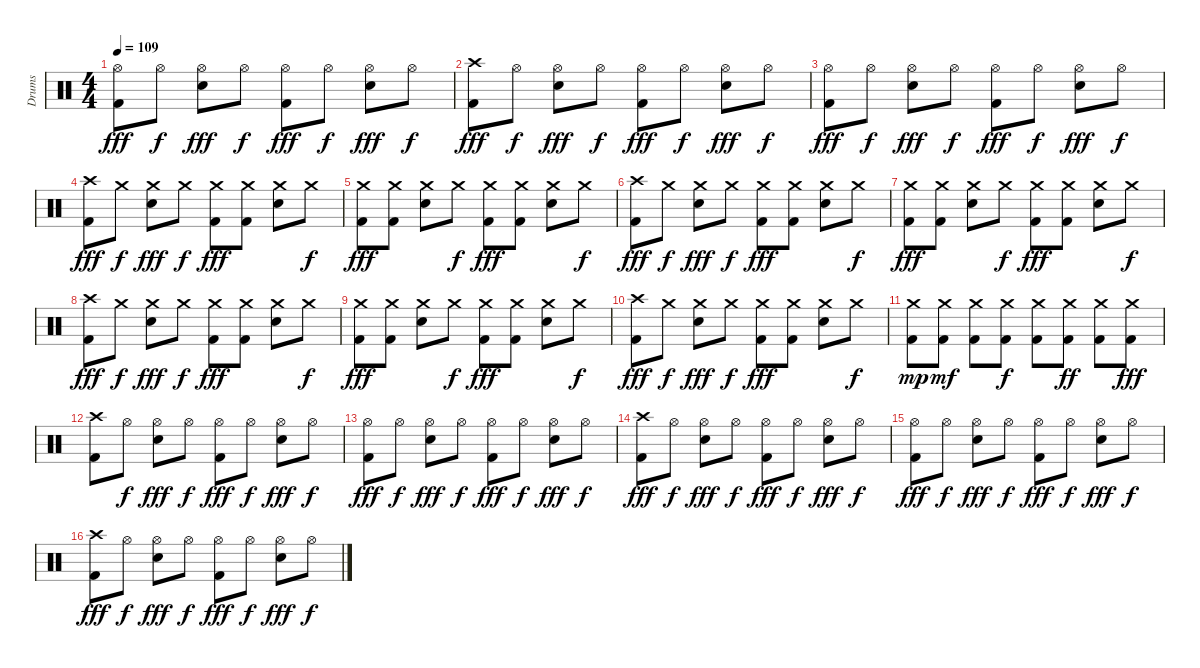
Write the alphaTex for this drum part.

\track ("Drums" "Drums") {instrument percussion}
\staff {score}
\articulation defaults
\ts (4 4)
\tempo 109
\clef neutral
\ks c
("Hi-Hat (open)" "Kick (hit) 2").8{dy fff} "Hi-Hat (open)".8{dy f} ("Hi-Hat (open)" "Electric Snare (hit)").8{dy fff} "Hi-Hat (open)".8{dy f} ("Hi-Hat (open)" "Kick (hit) 2").8{dy fff} "Hi-Hat (open)".8{dy f} ("Hi-Hat (open)" "Electric Snare (hit)").8{dy fff} "Hi-Hat (open)".8{dy f} |
("Crash high (hit)" "Kick (hit) 2").8{dy fff} "Hi-Hat (open)".8{dy f} ("Hi-Hat (open)" "Electric Snare (hit)").8{dy fff} "Hi-Hat (open)".8{dy f} ("Hi-Hat (open)" "Kick (hit) 2").8{dy fff} "Hi-Hat (open)".8{dy f} ("Hi-Hat (open)" "Electric Snare (hit)").8{dy fff} "Hi-Hat (open)".8{dy f} |
("Hi-Hat (open)" "Kick (hit) 2").8{dy fff} "Hi-Hat (open)".8{dy f} ("Hi-Hat (open)" "Electric Snare (hit)").8{dy fff} "Hi-Hat (open)".8{dy f} ("Hi-Hat (open)" "Kick (hit) 2").8{dy fff} "Hi-Hat (open)".8{dy f} ("Hi-Hat (open)" "Electric Snare (hit)").8{dy fff} "Hi-Hat (open)".8{dy f} |
("Crash high (hit)" "Kick (hit) 2").8{dy fff} "Crash medium (hit)".8{dy f} ("Crash medium (hit)" "Electric Snare (hit)").8{dy fff} "Crash medium (hit)".8{dy f} ("Crash medium (hit)" "Kick (hit) 2").8{dy fff} ("Crash medium (hit)" "Kick (hit) 2").8 ("Crash medium (hit)" "Electric Snare (hit)").8 "Crash medium (hit)".8{dy f} |
("Crash medium (hit)" "Kick (hit) 2").8{dy fff} ("Crash medium (hit)" "Kick (hit) 2").8 ("Crash medium (hit)" "Electric Snare (hit)").8 "Crash medium (hit)".8{dy f} ("Crash medium (hit)" "Kick (hit) 2").8{dy fff} ("Crash medium (hit)" "Kick (hit) 2").8 ("Crash medium (hit)" "Electric Snare (hit)").8 "Crash medium (hit)".8{dy f} |
("Crash high (hit)" "Kick (hit) 2").8{dy fff} "Crash medium (hit)".8{dy f} ("Crash medium (hit)" "Electric Snare (hit)").8{dy fff} "Crash medium (hit)".8{dy f} ("Crash medium (hit)" "Kick (hit) 2").8{dy fff} ("Crash medium (hit)" "Kick (hit) 2").8 ("Crash medium (hit)" "Electric Snare (hit)").8 "Crash medium (hit)".8{dy f} |
("Crash medium (hit)" "Kick (hit) 2").8{dy fff} ("Crash medium (hit)" "Kick (hit) 2").8 ("Crash medium (hit)" "Electric Snare (hit)").8 "Crash medium (hit)".8{dy f} ("Crash medium (hit)" "Kick (hit) 2").8{dy fff} ("Crash medium (hit)" "Kick (hit) 2").8 ("Crash medium (hit)" "Electric Snare (hit)").8 "Crash medium (hit)".8{dy f} |
("Crash high (hit)" "Kick (hit) 2").8{dy fff} "Crash medium (hit)".8{dy f} ("Crash medium (hit)" "Electric Snare (hit)").8{dy fff} "Crash medium (hit)".8{dy f} ("Crash medium (hit)" "Kick (hit) 2").8{dy fff} ("Crash medium (hit)" "Kick (hit) 2").8 ("Crash medium (hit)" "Electric Snare (hit)").8 "Crash medium (hit)".8{dy f} |
("Crash medium (hit)" "Kick (hit) 2").8{dy fff} ("Crash medium (hit)" "Kick (hit) 2").8 ("Crash medium (hit)" "Electric Snare (hit)").8 "Crash medium (hit)".8{dy f} ("Crash medium (hit)" "Kick (hit) 2").8{dy fff} ("Crash medium (hit)" "Kick (hit) 2").8 ("Crash medium (hit)" "Electric Snare (hit)").8 "Crash medium (hit)".8{dy f} |
("Crash high (hit)" "Kick (hit) 2").8{dy fff} "Crash medium (hit)".8{dy f} ("Crash medium (hit)" "Electric Snare (hit)").8{dy fff} "Crash medium (hit)".8{dy f} ("Crash medium (hit)" "Kick (hit) 2").8{dy fff} ("Crash medium (hit)" "Kick (hit) 2").8 ("Crash medium (hit)" "Electric Snare (hit)").8 "Crash medium (hit)".8{dy f} |
("Crash medium (hit)" "Kick (hit) 2").8{dy mp} ("Crash medium (hit)" "Kick (hit) 2").8{dy mf} ("Crash medium (hit)" "Kick (hit) 2").8 ("Crash medium (hit)" "Kick (hit) 2").8{dy f} ("Crash medium (hit)" "Kick (hit) 2").8 ("Crash medium (hit)" "Kick (hit) 2").8{dy ff} ("Crash medium (hit)" "Kick (hit) 2").8 ("Crash medium (hit)" "Kick (hit) 2").8{dy fff} |
("Crash high (hit)" "Kick (hit) 2").8 "Hi-Hat (open)".8{dy f} ("Hi-Hat (open)" "Electric Snare (hit)").8{dy fff} "Hi-Hat (open)".8{dy f} ("Hi-Hat (open)" "Kick (hit) 2").8{dy fff} "Hi-Hat (open)".8{dy f} ("Hi-Hat (open)" "Electric Snare (hit)").8{dy fff} "Hi-Hat (open)".8{dy f} |
("Hi-Hat (open)" "Kick (hit) 2").8{dy fff} "Hi-Hat (open)".8{dy f} ("Hi-Hat (open)" "Electric Snare (hit)").8{dy fff} "Hi-Hat (open)".8{dy f} ("Hi-Hat (open)" "Kick (hit) 2").8{dy fff} "Hi-Hat (open)".8{dy f} ("Hi-Hat (open)" "Electric Snare (hit)").8{dy fff} "Hi-Hat (open)".8{dy f} |
("Crash high (hit)" "Kick (hit) 2").8{dy fff} "Hi-Hat (open)".8{dy f} ("Hi-Hat (open)" "Electric Snare (hit)").8{dy fff} "Hi-Hat (open)".8{dy f} ("Hi-Hat (open)" "Kick (hit) 2").8{dy fff} "Hi-Hat (open)".8{dy f} ("Hi-Hat (open)" "Electric Snare (hit)").8{dy fff} "Hi-Hat (open)".8{dy f} |
("Hi-Hat (open)" "Kick (hit) 2").8{dy fff} "Hi-Hat (open)".8{dy f} ("Hi-Hat (open)" "Electric Snare (hit)").8{dy fff} "Hi-Hat (open)".8{dy f} ("Hi-Hat (open)" "Kick (hit) 2").8{dy fff} "Hi-Hat (open)".8{dy f} ("Hi-Hat (open)" "Electric Snare (hit)").8{dy fff} "Hi-Hat (open)".8{dy f} |
("Crash high (hit)" "Kick (hit) 2").8{dy fff} "Hi-Hat (open)".8{dy f} ("Hi-Hat (open)" "Electric Snare (hit)").8{dy fff} "Hi-Hat (open)".8{dy f} ("Hi-Hat (open)" "Kick (hit) 2").8{dy fff} "Hi-Hat (open)".8{dy f} ("Hi-Hat (open)" "Electric Snare (hit)").8{dy fff} "Hi-Hat (open)".8{dy f}
